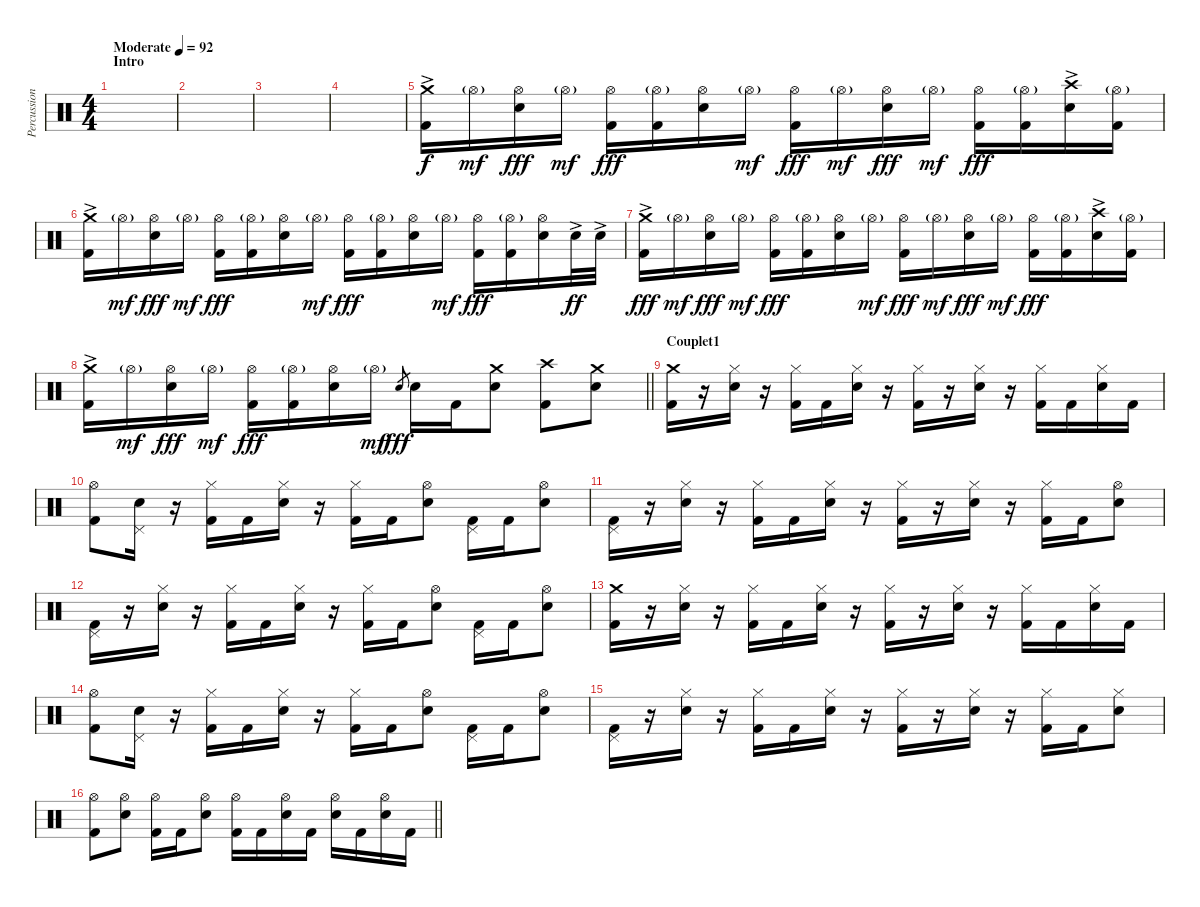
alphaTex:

\track ("Percussions" "Percussion") {instrument percussion}
\staff {score}
\articulation defaults
\ts (4 4)
\section ("" "Intro")
\tempo (92 "Moderate")
\clef neutral
\ks c
|
|
|
|
("Crash medium (hit)"{ac} "Kick (hit) 2").16 "Hi-Hat (open)"{g}.16{dy mf} ("Hi-Hat (open)" "Electric Snare (hit)").16{dy fff} "Hi-Hat (open)"{g}.16{dy mf} ("Hi-Hat (open)" "Kick (hit) 2").16{dy fff} ("Hi-Hat (open)"{g} "Kick (hit) 2").16 ("Hi-Hat (open)" "Electric Snare (hit)").16 "Hi-Hat (open)"{g}.16{dy mf} ("Hi-Hat (open)" "Kick (hit) 2").16{dy fff} "Hi-Hat (open)"{g}.16{dy mf} ("Hi-Hat (open)" "Electric Snare (hit)").16{dy fff} "Hi-Hat (open)"{g}.16{dy mf} ("Hi-Hat (open)" "Kick (hit) 2").16{dy fff} ("Hi-Hat (open)"{g} "Kick (hit) 2").16 ("Crash high (hit)"{ac} "Electric Snare (hit)").16 ("Hi-Hat (open)"{g} "Kick (hit) 2").16 |
("Crash medium (hit)"{ac} "Kick (hit) 2").16 "Hi-Hat (open)"{g}.16{dy mf} ("Hi-Hat (open)" "Electric Snare (hit)").16{dy fff} "Hi-Hat (open)"{g}.16{dy mf} ("Hi-Hat (open)" "Kick (hit) 2").16{dy fff} ("Hi-Hat (open)"{g} "Kick (hit) 2").16 ("Hi-Hat (open)" "Electric Snare (hit)").16 "Hi-Hat (open)"{g}.16{dy mf} ("Hi-Hat (open)" "Kick (hit) 2").16{dy fff} ("Hi-Hat (open)"{g} "Kick (hit) 2").16 ("Hi-Hat (open)" "Electric Snare (hit)").16 "Hi-Hat (open)"{g}.16{dy mf} ("Hi-Hat (open)" "Kick (hit) 2").16{dy fff} ("Hi-Hat (open)"{g} "Kick (hit) 2").16 ("Hi-Hat (open)" "Electric Snare (hit)").16 "Electric Snare (hit)"{ac}.32{dy ff} "Electric Snare (hit)"{ac}.32 |
("Crash medium (hit)"{ac} "Kick (hit) 2").16{dy fff} "Hi-Hat (open)"{g}.16{dy mf} ("Hi-Hat (open)" "Electric Snare (hit)").16{dy fff} "Hi-Hat (open)"{g}.16{dy mf} ("Hi-Hat (open)" "Kick (hit) 2").16{dy fff} ("Hi-Hat (open)"{g} "Kick (hit) 2").16 ("Hi-Hat (open)" "Electric Snare (hit)").16 "Hi-Hat (open)"{g}.16{dy mf} ("Hi-Hat (open)" "Kick (hit) 2").16{dy fff} "Hi-Hat (open)"{g}.16{dy mf} ("Hi-Hat (open)" "Electric Snare (hit)").16{dy fff} "Hi-Hat (open)"{g}.16{dy mf} ("Hi-Hat (open)" "Kick (hit) 2").16{dy fff} ("Hi-Hat (open)"{g} "Kick (hit) 2").16 ("Crash high (hit)"{ac} "Electric Snare (hit)").16 ("Hi-Hat (open)"{g} "Kick (hit) 2").16 |
\barLineRight lightlight
("Crash medium (hit)"{ac} "Kick (hit) 2").16 "Hi-Hat (open)"{g}.16{dy mf} ("Hi-Hat (open)" "Electric Snare (hit)").16{dy fff} "Hi-Hat (open)"{g}.16{dy mf} ("Hi-Hat (open)" "Kick (hit) 2").16{dy fff} ("Hi-Hat (open)"{g} "Kick (hit) 2").16 ("Hi-Hat (open)" "Electric Snare (hit)").16 "Hi-Hat (open)"{g}.16{dy mf} "Electric Snare (hit)".8{gr dy fff} "Electric Snare (hit)".16 "Kick (hit) 2".16 ("Crash medium (hit)" "Electric Snare (hit)").8 ("Crash high (hit)" "Kick (hit) 2").8 ("Crash medium (hit)" "Electric Snare (hit)").8 |
\section ("" "Couplet1")
("Crash medium (hit)" "Kick (hit) 2").16 r.16 ("Hi-Hat (closed)" "Electric Snare (hit)").16 r.16 ("Hi-Hat (closed)" "Kick (hit) 2").16 "Kick (hit) 2".16 ("Hi-Hat (closed)" "Electric Snare (hit)").16 r.16 ("Hi-Hat (closed)" "Kick (hit) 2").16 r.16 ("Hi-Hat (closed)" "Electric Snare (hit)").16 r.16 ("Hi-Hat (closed)" "Kick (hit) 2").16 "Kick (hit) 2".16 ("Hi-Hat (closed)" "Electric Snare (hit)").16 "Kick (hit) 2".16 |
("Hi-Hat (open)" "Kick (hit) 2").8 ("Electric Snare (hit)" "Pedal Hi-Hat (hit)").16 r.16 ("Hi-Hat (closed)" "Kick (hit) 2").16 "Kick (hit) 2".16 ("Hi-Hat (closed)" "Electric Snare (hit)").16 r.16 ("Hi-Hat (closed)" "Kick (hit) 2").16 "Kick (hit) 2".16 ("Hi-Hat (open)" "Electric Snare (hit)").8 ("Pedal Hi-Hat (hit)" "Kick (hit) 2").16 "Kick (hit) 2".16 ("Hi-Hat (open)" "Electric Snare (hit)").8 |
("Pedal Hi-Hat (hit)" "Kick (hit) 2").16 r.16 ("Hi-Hat (closed)" "Electric Snare (hit)").16 r.16 ("Hi-Hat (closed)" "Kick (hit) 2").16 "Kick (hit) 2".16 ("Hi-Hat (closed)" "Electric Snare (hit)").16 r.16 ("Hi-Hat (closed)" "Kick (hit) 2").16 r.16 ("Hi-Hat (closed)" "Electric Snare (hit)").16 r.16 ("Hi-Hat (closed)" "Kick (hit) 2").16 "Kick (hit) 2".16 ("Hi-Hat (open)" "Electric Snare (hit)").8 |
("Pedal Hi-Hat (hit)" "Kick (hit) 2").16 r.16 ("Hi-Hat (closed)" "Electric Snare (hit)").16 r.16 ("Hi-Hat (closed)" "Kick (hit) 2").16 "Kick (hit) 2".16 ("Hi-Hat (closed)" "Electric Snare (hit)").16 r.16 ("Hi-Hat (closed)" "Kick (hit) 2").16 "Kick (hit) 2".16 ("Hi-Hat (open)" "Electric Snare (hit)").8 ("Pedal Hi-Hat (hit)" "Kick (hit) 2").16 "Kick (hit) 2".16 ("Hi-Hat (open)" "Electric Snare (hit)").8 |
("Crash medium (hit)" "Kick (hit) 2").16 r.16 ("Hi-Hat (closed)" "Electric Snare (hit)").16 r.16 ("Hi-Hat (closed)" "Kick (hit) 2").16 "Kick (hit) 2".16 ("Hi-Hat (closed)" "Electric Snare (hit)").16 r.16 ("Hi-Hat (closed)" "Kick (hit) 2").16 r.16 ("Hi-Hat (closed)" "Electric Snare (hit)").16 r.16 ("Hi-Hat (closed)" "Kick (hit) 2").16 "Kick (hit) 2".16 ("Hi-Hat (closed)" "Electric Snare (hit)").16 "Kick (hit) 2".16 |
("Hi-Hat (open)" "Kick (hit) 2").8 ("Electric Snare (hit)" "Pedal Hi-Hat (hit)").16 r.16 ("Hi-Hat (closed)" "Kick (hit) 2").16 "Kick (hit) 2".16 ("Hi-Hat (closed)" "Electric Snare (hit)").16 r.16 ("Hi-Hat (closed)" "Kick (hit) 2").16 "Kick (hit) 2".16 ("Hi-Hat (open)" "Electric Snare (hit)").8 ("Pedal Hi-Hat (hit)" "Kick (hit) 2").16 "Kick (hit) 2".16 ("Hi-Hat (open)" "Electric Snare (hit)").8 |
("Pedal Hi-Hat (hit)" "Kick (hit) 2").16 r.16 ("Hi-Hat (closed)" "Electric Snare (hit)").16 r.16 ("Hi-Hat (closed)" "Kick (hit) 2").16 "Kick (hit) 2".16 ("Hi-Hat (closed)" "Electric Snare (hit)").16 r.16 ("Hi-Hat (closed)" "Kick (hit) 2").16 r.16 ("Hi-Hat (closed)" "Electric Snare (hit)").16 r.16 ("Hi-Hat (closed)" "Kick (hit) 2").16 "Kick (hit) 2".16 ("Hi-Hat (closed)" "Electric Snare (hit)").8 |
\barLineRight lightlight
("Hi-Hat (open)" "Kick (hit) 2").8 ("Hi-Hat (open)" "Electric Snare (hit)").8 ("Hi-Hat (open)" "Kick (hit) 2").16 "Kick (hit) 2".16 ("Hi-Hat (open)" "Electric Snare (hit)").8 ("Hi-Hat (open)" "Kick (hit) 2").16 "Kick (hit) 2".16 ("Hi-Hat (open)" "Electric Snare (hit)").16 "Kick (hit) 2".16 ("Hi-Hat (open)" "Electric Snare (hit)").16 "Kick (hit) 2".16 ("Hi-Hat (open)" "Electric Snare (hit)").16 "Kick (hit) 2".16
